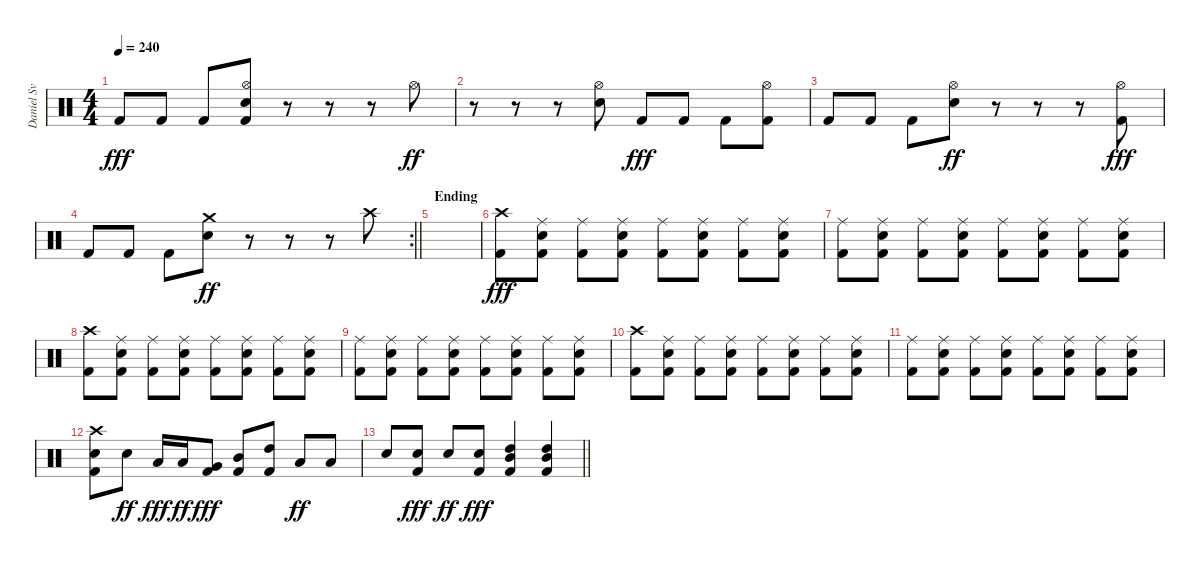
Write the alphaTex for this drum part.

\track (" Daniel Svensson" " Daniel Sv") {instrument percussion}
\staff {score}
\articulation defaults
\ts (4 4)
\tempo 240
\clef neutral
\ks c "Kick (hit) 2".8{dy fff} "Kick (hit) 2".8 "Kick (hit) 2".8
("Hi-Hat (open)" "Electric Snare (hit)" "Kick (hit) 2").8 r.8 r.8 r.8 "Hi-Hat (open)".8{dy ff} |
r.8 r.8 r.8 ("Hi-Hat (open)" "Electric Snare (hit)").8 "Kick (hit) 2".8{dy fff} "Kick (hit) 2".8 "Kick (hit) 2".8 ("Hi-Hat (open)" "Kick (hit) 2").8 |
"Kick (hit) 2".8 "Kick (hit) 2".8 "Kick (hit) 2".8 ("Hi-Hat (open)" "Electric Snare (hit)").8{dy ff} r.8 r.8 r.8 ("Hi-Hat (open)" "Kick (hit) 2").8{dy fff} |
\rc 2
\barLineRight lightlight "Kick (hit) 2".8 "Kick (hit) 2".8 "Kick (hit) 2".8
("Crash medium (hit)" "Electric Snare (hit)").8{dy ff} r.8 r.8 r.8 "Crash high (hit)".8 |
\section ("" "Ending")
|
("Crash high (hit)" "Kick (hit) 2").8{dy fff} ("Ride (middle)" "Electric Snare (hit)" "Kick (hit) 2").8 ("Ride (middle)" "Kick (hit) 2").8 ("Ride (middle)" "Electric Snare (hit)" "Kick (hit) 2").8 ("Ride (middle)" "Kick (hit) 2").8 ("Ride (middle)" "Electric Snare (hit)" "Kick (hit) 2").8 ("Ride (middle)" "Kick (hit) 2").8 ("Ride (middle)" "Electric Snare (hit)" "Kick (hit) 2").8 |
("Ride (middle)" "Kick (hit) 2").8 ("Ride (middle)" "Electric Snare (hit)" "Kick (hit) 2").8 ("Ride (middle)" "Kick (hit) 2").8 ("Ride (middle)" "Electric Snare (hit)" "Kick (hit) 2").8 ("Ride (middle)" "Kick (hit) 2").8 ("Ride (middle)" "Electric Snare (hit)" "Kick (hit) 2").8 ("Ride (middle)" "Kick (hit) 2").8 ("Ride (middle)" "Electric Snare (hit)" "Kick (hit) 2").8 |
("Crash high (hit)" "Kick (hit) 2").8 ("Ride (middle)" "Electric Snare (hit)" "Kick (hit) 2").8 ("Ride (middle)" "Kick (hit) 2").8 ("Ride (middle)" "Electric Snare (hit)" "Kick (hit) 2").8 ("Ride (middle)" "Kick (hit) 2").8 ("Ride (middle)" "Electric Snare (hit)" "Kick (hit) 2").8 ("Ride (middle)" "Kick (hit) 2").8 ("Ride (middle)" "Electric Snare (hit)" "Kick (hit) 2").8 |
("Ride (middle)" "Kick (hit) 2").8 ("Ride (middle)" "Electric Snare (hit)" "Kick (hit) 2").8 ("Ride (middle)" "Kick (hit) 2").8 ("Ride (middle)" "Electric Snare (hit)" "Kick (hit) 2").8 ("Ride (middle)" "Kick (hit) 2").8 ("Ride (middle)" "Electric Snare (hit)" "Kick (hit) 2").8 ("Ride (middle)" "Kick (hit) 2").8 ("Ride (middle)" "Electric Snare (hit)" "Kick (hit) 2").8 |
("Crash high (hit)" "Kick (hit) 2").8 ("Ride (middle)" "Electric Snare (hit)" "Kick (hit) 2").8 ("Ride (middle)" "Kick (hit) 2").8 ("Ride (middle)" "Electric Snare (hit)" "Kick (hit) 2").8 ("Ride (middle)" "Kick (hit) 2").8 ("Ride (middle)" "Electric Snare (hit)" "Kick (hit) 2").8 ("Ride (middle)" "Kick (hit) 2").8 ("Ride (middle)" "Electric Snare (hit)" "Kick (hit) 2").8 |
("Ride (middle)" "Kick (hit) 2").8 ("Ride (middle)" "Electric Snare (hit)" "Kick (hit) 2").8 ("Ride (middle)" "Kick (hit) 2").8 ("Ride (middle)" "Electric Snare (hit)" "Kick (hit) 2").8 ("Ride (middle)" "Kick (hit) 2").8 ("Ride (middle)" "Electric Snare (hit)" "Kick (hit) 2").8 ("Ride (middle)" "Kick (hit) 2").8 ("Ride (middle)" "Electric Snare (hit)" "Kick (hit) 2").8 |
("Crash high (hit)" "Electric Snare (hit)" "Kick (hit) 2").8 "Electric Snare (hit)".8{dy ff} "Low Floor Tom (hit)".16{dy fff} "Low Floor Tom (hit)".16{dy ff} ("Very Low Tom (hit)" "Kick (hit) 2").8{dy fff} ("Mid Tom (hit)" "Kick (hit) 2").8 ("High Tom (hit)" "Kick (hit) 2").8 "Low Tom (hit)".8{dy ff} "Low Tom (hit)".8 |
\barLineRight lightlight "Electric Snare (hit)".8
("Electric Snare (hit)" "Kick (hit) 2").8{dy fff} "Electric Snare (hit)".8{dy ff} ("Electric Snare (hit)" "Kick (hit) 2").8{dy fff} ("High Tom (hit)" "Mid Tom (hit)" "Kick (hit) 2").4 ("High Tom (hit)" "Mid Tom (hit)" "Kick (hit) 2").4
